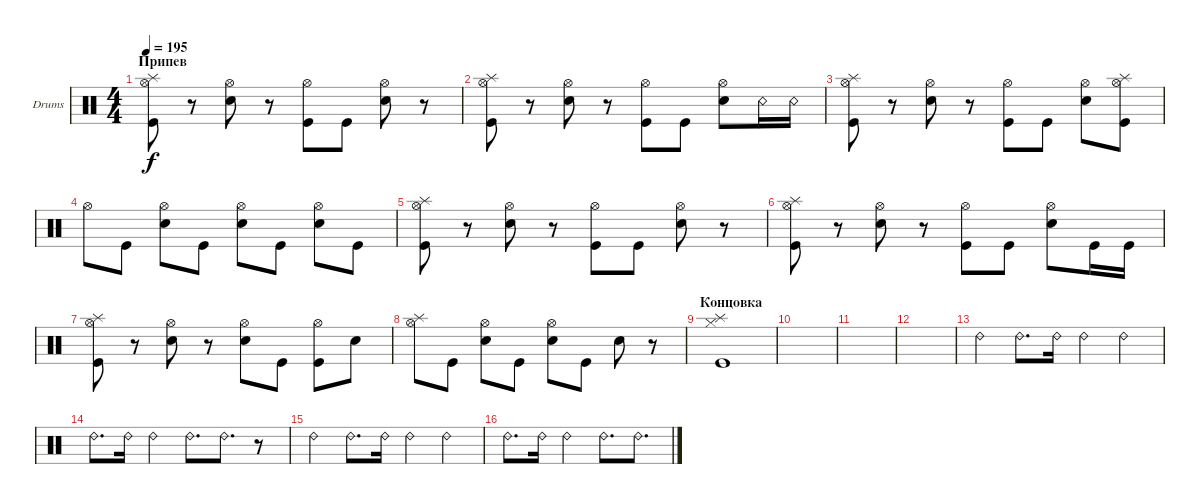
\defaultSystemsLayout 4
\bracketExtendMode groupsimilarinstruments
\firstSystemTrackNameOrientation horizontal
\otherSystemsTrackNameOrientation horizontal
\track ("Drumkit" "Drums") {instrument percussion}
\staff {score}
\articulation defaults
\ts (4 4)
\section ("" "Припев")
\tempo 195
\clef neutral
\ks c
("Kick (hit)" "Hi-Hat (open)" "Splash (hit)").8{dy f} r.8 ("Hi-Hat (open)" "Snare (hit) 2").8 r.8 ("Hi-Hat (open)" "Kick (hit)").8 "Kick (hit)".8 ("Hi-Hat (open)" "Snare (hit) 2").8 r.8 |
("Kick (hit)" "Hi-Hat (open)" "Splash (hit)").8 r.8 ("Hi-Hat (open)" "Snare (hit) 2").8 r.8 ("Hi-Hat (open)" "Kick (hit)").8 "Kick (hit)".8 ("Hi-Hat (open)" "Snare (hit) 2").8 "Snare (rim shot)".16 "Snare (rim shot)".16 |
("Kick (hit)" "Hi-Hat (open)" "Splash (hit)").8 r.8 ("Hi-Hat (open)" "Snare (hit) 2").8 r.8 ("Hi-Hat (open)" "Kick (hit)").8 "Kick (hit)".8 ("Hi-Hat (open)" "Snare (hit) 2").8 ("Hi-Hat (open)" "Splash (hit)" "Kick (hit)").8 |
"Hi-Hat (open)".8 "Kick (hit)".8 ("Hi-Hat (open)" "Snare (hit) 2").8 "Kick (hit)".8 ("Hi-Hat (open)" "Snare (hit) 2").8 "Kick (hit)".8 ("Hi-Hat (open)" "Snare (hit) 2").8 "Kick (hit)".8 |
("Kick (hit)" "Hi-Hat (open)" "Splash (hit)").8 r.8 ("Hi-Hat (open)" "Snare (hit) 2").8 r.8 ("Hi-Hat (open)" "Kick (hit)").8 "Kick (hit)".8 ("Hi-Hat (open)" "Snare (hit) 2").8 r.8 |
("Kick (hit)" "Hi-Hat (open)" "Splash (hit)").8 r.8 ("Hi-Hat (open)" "Snare (hit) 2").8 r.8 ("Hi-Hat (open)" "Kick (hit)").8 "Kick (hit)".8 ("Hi-Hat (open)" "Snare (hit) 2").8 "Kick (hit)".16 "Kick (hit)".16 |
("Kick (hit)" "Hi-Hat (open)" "Splash (hit)").8 r.8 ("Snare (hit) 2" "Hi-Hat (open)").8 r.8 ("Snare (hit) 2" "Hi-Hat (open)").8 "Kick (hit)".8 ("Kick (hit)" "Hi-Hat (open)").8 "Snare (hit) 2".8 |
("Hi-Hat (open)" "Splash (hit)").8 "Kick (hit)".8 ("Snare (hit) 2" "Hi-Hat (open)").8 "Kick (hit)".8 ("Snare (hit) 2" "Hi-Hat (open)").8 "Kick (hit)".8 "Snare (hit) 2".8 r.8 |
\section ("" "Концовка")
("Kick (hit)" "Hi-Hat (closed)" "Splash (hit)").1 |
|
|
|
"Ride (bell) 2".4 "Ride (bell) 2".8{d} "Ride (bell) 2".16 "Ride (bell) 2".4 "Ride (bell) 2".4 |
"Ride (bell) 2".8{d} "Ride (bell) 2".16 "Ride (bell) 2".4 "Ride (bell) 2".8{d} "Ride (bell) 2".8{d} r.8 |
"Ride (bell) 2".4 "Ride (bell) 2".8{d} "Ride (bell) 2".16 "Ride (bell) 2".4 "Ride (bell) 2".4 |
"Ride (bell) 2".8{d} "Ride (bell) 2".16 "Ride (bell) 2".4 "Ride (bell) 2".8{d} "Ride (bell) 2".8{d}
